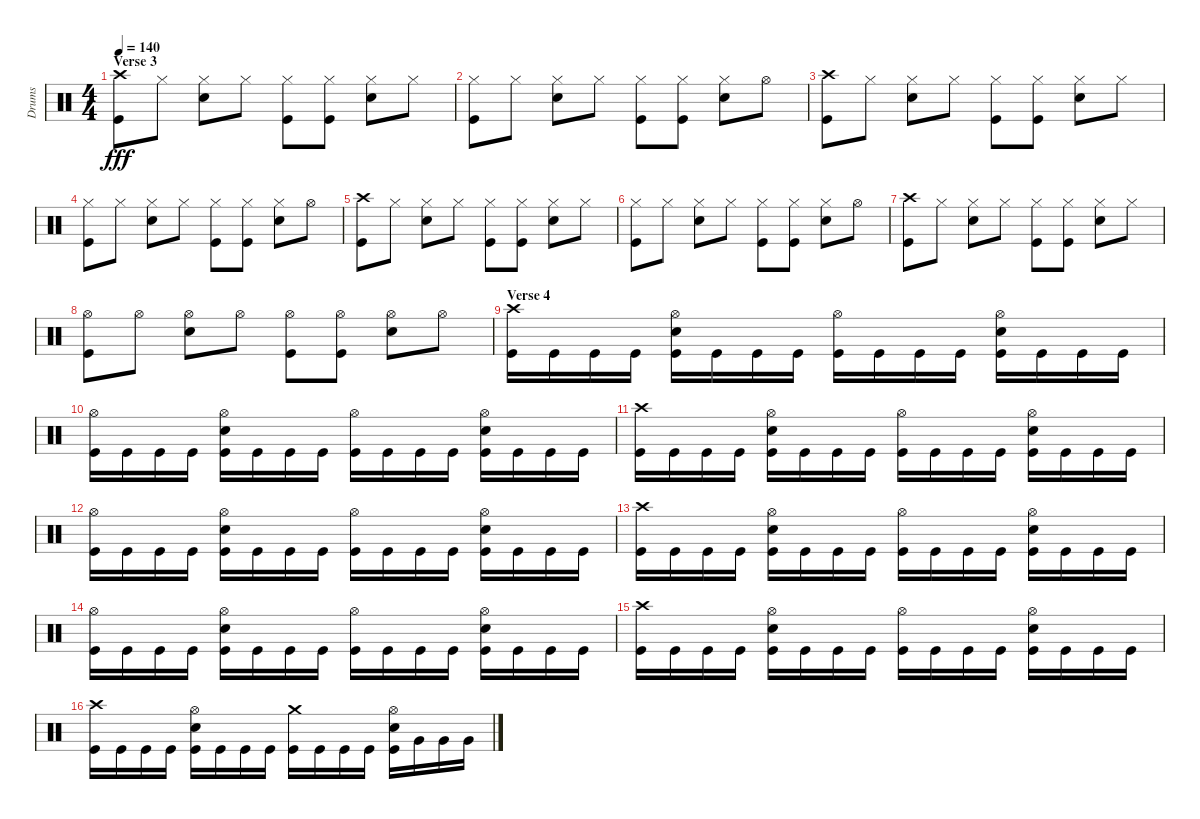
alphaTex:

\track ("Drums" "Drums") {instrument percussion}
\staff {score}
\articulation defaults
\ts (4 4)
\section ("" "Verse 3")
\tempo 140
\clef neutral
\ks c
("Crash high (hit)" "Kick (hit)").8{dy fff} "Hi-Hat (closed)".8 ("Hi-Hat (closed)" "Snare (hit) 2").8 "Hi-Hat (closed)".8 ("Hi-Hat (closed)" "Kick (hit)").8 ("Hi-Hat (closed)" "Kick (hit)").8 ("Hi-Hat (closed)" "Snare (hit) 2").8 "Hi-Hat (closed)".8 |
("Hi-Hat (closed)" "Kick (hit)").8 "Hi-Hat (closed)".8 ("Hi-Hat (closed)" "Snare (hit) 2").8 "Hi-Hat (closed)".8 ("Hi-Hat (closed)" "Kick (hit)").8 ("Hi-Hat (closed)" "Kick (hit)").8 ("Hi-Hat (closed)" "Snare (hit) 2").8 "Hi-Hat (open)".8 |
("Crash high (hit)" "Kick (hit)").8 "Hi-Hat (closed)".8 ("Hi-Hat (closed)" "Snare (hit) 2").8 "Hi-Hat (closed)".8 ("Hi-Hat (closed)" "Kick (hit)").8 ("Hi-Hat (closed)" "Kick (hit)").8 ("Hi-Hat (closed)" "Snare (hit) 2").8 "Hi-Hat (closed)".8 |
("Hi-Hat (closed)" "Kick (hit)").8 "Hi-Hat (closed)".8 ("Hi-Hat (closed)" "Snare (hit) 2").8 "Hi-Hat (closed)".8 ("Hi-Hat (closed)" "Kick (hit)").8 ("Hi-Hat (closed)" "Kick (hit)").8 ("Hi-Hat (closed)" "Snare (hit) 2").8 "Hi-Hat (open)".8 |
("Crash high (hit)" "Kick (hit)").8 "Hi-Hat (closed)".8 ("Hi-Hat (closed)" "Snare (hit) 2").8 "Hi-Hat (closed)".8 ("Hi-Hat (closed)" "Kick (hit)").8 ("Hi-Hat (closed)" "Kick (hit)").8 ("Hi-Hat (closed)" "Snare (hit) 2").8 "Hi-Hat (closed)".8 |
("Hi-Hat (closed)" "Kick (hit)").8 "Hi-Hat (closed)".8 ("Hi-Hat (closed)" "Snare (hit) 2").8 "Hi-Hat (closed)".8 ("Hi-Hat (closed)" "Kick (hit)").8 ("Hi-Hat (closed)" "Kick (hit)").8 ("Hi-Hat (closed)" "Snare (hit) 2").8 "Hi-Hat (open)".8 |
("Crash high (hit)" "Kick (hit)").8 "Hi-Hat (closed)".8 ("Hi-Hat (closed)" "Snare (hit) 2").8 "Hi-Hat (closed)".8 ("Hi-Hat (closed)" "Kick (hit)").8 ("Hi-Hat (closed)" "Kick (hit)").8 ("Hi-Hat (closed)" "Snare (hit) 2").8 "Hi-Hat (closed)".8 |
("Hi-Hat (open)" "Kick (hit)").8 "Hi-Hat (open)".8 ("Hi-Hat (open)" "Snare (hit) 2").8 "Hi-Hat (open)".8 ("Hi-Hat (open)" "Kick (hit)").8 ("Hi-Hat (open)" "Kick (hit)").8 ("Hi-Hat (open)" "Snare (hit) 2").8 "Hi-Hat (open)".8 |
\section ("" "Verse 4")
("Crash high (hit)" "Kick (hit)").16 "Kick (hit)".16 "Kick (hit)".16 "Kick (hit)".16 ("Hi-Hat (open)" "Snare (hit) 2" "Kick (hit)").16 "Kick (hit)".16 "Kick (hit)".16 "Kick (hit)".16 ("Hi-Hat (open)" "Kick (hit)").16 "Kick (hit)".16 "Kick (hit)".16 "Kick (hit)".16 ("Hi-Hat (open)" "Snare (hit) 2" "Kick (hit)").16 "Kick (hit)".16 "Kick (hit)".16 "Kick (hit)".16 |
("Hi-Hat (open)" "Kick (hit)").16 "Kick (hit)".16 "Kick (hit)".16 "Kick (hit)".16 ("Hi-Hat (open)" "Snare (hit) 2" "Kick (hit)").16 "Kick (hit)".16 "Kick (hit)".16 "Kick (hit)".16 ("Hi-Hat (open)" "Kick (hit)").16 "Kick (hit)".16 "Kick (hit)".16 "Kick (hit)".16 ("Hi-Hat (open)" "Snare (hit) 2" "Kick (hit)").16 "Kick (hit)".16 "Kick (hit)".16 "Kick (hit)".16 |
("Crash high (hit)" "Kick (hit)").16 "Kick (hit)".16 "Kick (hit)".16 "Kick (hit)".16 ("Hi-Hat (open)" "Snare (hit) 2" "Kick (hit)").16 "Kick (hit)".16 "Kick (hit)".16 "Kick (hit)".16 ("Hi-Hat (open)" "Kick (hit)").16 "Kick (hit)".16 "Kick (hit)".16 "Kick (hit)".16 ("Hi-Hat (open)" "Snare (hit) 2" "Kick (hit)").16 "Kick (hit)".16 "Kick (hit)".16 "Kick (hit)".16 |
("Hi-Hat (open)" "Kick (hit)").16 "Kick (hit)".16 "Kick (hit)".16 "Kick (hit)".16 ("Hi-Hat (open)" "Snare (hit) 2" "Kick (hit)").16 "Kick (hit)".16 "Kick (hit)".16 "Kick (hit)".16 ("Hi-Hat (open)" "Kick (hit)").16 "Kick (hit)".16 "Kick (hit)".16 "Kick (hit)".16 ("Hi-Hat (open)" "Snare (hit) 2" "Kick (hit)").16 "Kick (hit)".16 "Kick (hit)".16 "Kick (hit)".16 |
("Crash high (hit)" "Kick (hit)").16 "Kick (hit)".16 "Kick (hit)".16 "Kick (hit)".16 ("Hi-Hat (open)" "Snare (hit) 2" "Kick (hit)").16 "Kick (hit)".16 "Kick (hit)".16 "Kick (hit)".16 ("Hi-Hat (open)" "Kick (hit)").16 "Kick (hit)".16 "Kick (hit)".16 "Kick (hit)".16 ("Hi-Hat (open)" "Snare (hit) 2" "Kick (hit)").16 "Kick (hit)".16 "Kick (hit)".16 "Kick (hit)".16 |
("Hi-Hat (open)" "Kick (hit)").16 "Kick (hit)".16 "Kick (hit)".16 "Kick (hit)".16 ("Hi-Hat (open)" "Snare (hit) 2" "Kick (hit)").16 "Kick (hit)".16 "Kick (hit)".16 "Kick (hit)".16 ("Hi-Hat (open)" "Kick (hit)").16 "Kick (hit)".16 "Kick (hit)".16 "Kick (hit)".16 ("Hi-Hat (open)" "Snare (hit) 2" "Kick (hit)").16 "Kick (hit)".16 "Kick (hit)".16 "Kick (hit)".16 |
("Crash high (hit)" "Kick (hit)").16 "Kick (hit)".16 "Kick (hit)".16 "Kick (hit)".16 ("Hi-Hat (open)" "Snare (hit) 2" "Kick (hit)").16 "Kick (hit)".16 "Kick (hit)".16 "Kick (hit)".16 ("Hi-Hat (open)" "Kick (hit)").16 "Kick (hit)".16 "Kick (hit)".16 "Kick (hit)".16 ("Hi-Hat (open)" "Snare (hit) 2" "Kick (hit)").16 "Kick (hit)".16 "Kick (hit)".16 "Kick (hit)".16 |
("Crash high (hit)" "Kick (hit)").16 "Kick (hit)".16 "Kick (hit)".16 "Kick (hit)".16 ("Hi-Hat (open)" "Snare (hit) 2" "Kick (hit)").16 "Kick (hit)".16 "Kick (hit)".16 "Kick (hit)".16 ("Crash medium (hit)" "Kick (hit)").16 "Kick (hit)".16 "Kick (hit)".16 "Kick (hit)".16 ("Hi-Hat (open)" "Snare (hit) 2" "Kick (hit)").16 "Very Low Tom (hit)".16 "Very Low Tom (hit)".16 "Very Low Tom (hit)".16
